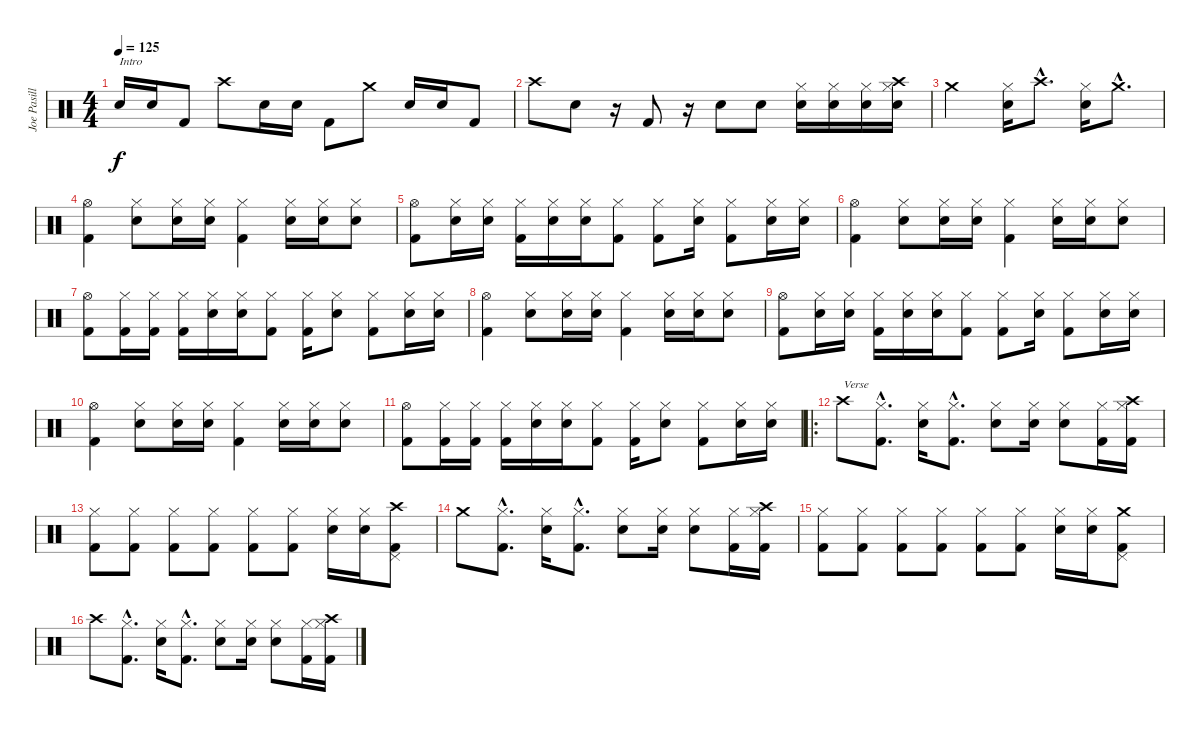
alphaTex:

\track ("Joe Pasillas" "Joe Pasill") {instrument percussion}
\staff {score}
\articulation defaults
\ts (4 4)
\tempo 125
\clef neutral
\ks c "Snare (hit) 2".16{txt "Intro" dy f} "Snare (hit) 2".16 "Kick (hit) 2".8 "Crash high (hit)".8 "Snare (hit) 2".16 "Snare (hit) 2".16 "Kick (hit) 2".8 "Crash medium (hit)".8 "Snare (hit) 2".16 "Snare (hit) 2".16 "Kick (hit) 2".8
|
"Crash high (hit)".8 "Snare (hit) 2".8 r.16 "Kick (hit) 2".8 r.16 "Snare (hit) 2".8 "Snare (hit) 2".8 ("Hi-Hat (closed)" "Snare (hit) 2").16 ("Hi-Hat (closed)" "Snare (hit) 2").16 ("Hi-Hat (closed)" "Snare (hit) 2").16 ("Crash high (hit)" "Hi-Hat (closed)" "Snare (hit) 2").16 |
"Crash medium (hit)".2 ("Hi-Hat (closed)" "Snare (hit) 2").16 "Crash high (hit)"{hac}.8{d} ("Hi-Hat (closed)" "Snare (hit) 2").16 "Crash medium (hit)"{hac}.8{d} |
("Hi-Hat (open)" "Kick (hit) 2").4 ("Hi-Hat (closed)" "Snare (hit) 2").8 ("Hi-Hat (closed)" "Snare (hit) 2").16 ("Hi-Hat (closed)" "Snare (hit) 2").16 ("Hi-Hat (closed)" "Kick (hit) 2").4 ("Hi-Hat (closed)" "Snare (hit) 2").16 ("Hi-Hat (closed)" "Snare (hit) 2").16 ("Hi-Hat (closed)" "Snare (hit) 2").8 |
("Hi-Hat (open)" "Kick (hit) 2").8 ("Hi-Hat (closed)" "Snare (hit) 2").16 ("Hi-Hat (closed)" "Snare (hit) 2").16 ("Hi-Hat (closed)" "Kick (hit) 2").16 ("Hi-Hat (closed)" "Snare (hit) 2").16 ("Hi-Hat (closed)" "Snare (hit) 2").16 ("Hi-Hat (closed)" "Kick (hit) 2").8 ("Hi-Hat (closed)" "Kick (hit) 2").8 ("Hi-Hat (closed)" "Snare (hit) 2").16 ("Hi-Hat (closed)" "Kick (hit) 2").8 ("Hi-Hat (closed)" "Snare (hit) 2").16 ("Hi-Hat (closed)" "Snare (hit) 2").16 |
("Hi-Hat (open)" "Kick (hit) 2").4 ("Hi-Hat (closed)" "Snare (hit) 2").8 ("Hi-Hat (closed)" "Snare (hit) 2").16 ("Hi-Hat (closed)" "Snare (hit) 2").16 ("Hi-Hat (closed)" "Kick (hit) 2").4 ("Hi-Hat (closed)" "Snare (hit) 2").16 ("Hi-Hat (closed)" "Snare (hit) 2").16 ("Hi-Hat (closed)" "Snare (hit) 2").8 |
("Hi-Hat (open)" "Kick (hit) 2").8 ("Hi-Hat (closed)" "Kick (hit) 2").16 ("Hi-Hat (closed)" "Kick (hit) 2").16 ("Hi-Hat (closed)" "Kick (hit) 2").16 ("Hi-Hat (closed)" "Snare (hit) 2").16 ("Hi-Hat (closed)" "Snare (hit) 2").16 ("Hi-Hat (closed)" "Kick (hit) 2").8 ("Hi-Hat (closed)" "Kick (hit) 2").16 ("Hi-Hat (closed)" "Snare (hit) 2").8 ("Hi-Hat (closed)" "Kick (hit) 2").8 ("Hi-Hat (closed)" "Snare (hit) 2").16 ("Hi-Hat (closed)" "Snare (hit) 2").16 |
("Hi-Hat (open)" "Kick (hit) 2").4 ("Hi-Hat (closed)" "Snare (hit) 2").8 ("Hi-Hat (closed)" "Snare (hit) 2").16 ("Hi-Hat (closed)" "Snare (hit) 2").16 ("Hi-Hat (closed)" "Kick (hit) 2").4 ("Hi-Hat (closed)" "Snare (hit) 2").16 ("Hi-Hat (closed)" "Snare (hit) 2").16 ("Hi-Hat (closed)" "Snare (hit) 2").8 |
("Hi-Hat (open)" "Kick (hit) 2").8 ("Hi-Hat (closed)" "Snare (hit) 2").16 ("Hi-Hat (closed)" "Snare (hit) 2").16 ("Hi-Hat (closed)" "Kick (hit) 2").16 ("Hi-Hat (closed)" "Snare (hit) 2").16 ("Hi-Hat (closed)" "Snare (hit) 2").16 ("Hi-Hat (closed)" "Kick (hit) 2").8 ("Hi-Hat (closed)" "Kick (hit) 2").8 ("Hi-Hat (closed)" "Snare (hit) 2").16 ("Hi-Hat (closed)" "Kick (hit) 2").8 ("Hi-Hat (closed)" "Snare (hit) 2").16 ("Hi-Hat (closed)" "Snare (hit) 2").16 |
("Hi-Hat (open)" "Kick (hit) 2").4 ("Hi-Hat (closed)" "Snare (hit) 2").8 ("Hi-Hat (closed)" "Snare (hit) 2").16 ("Hi-Hat (closed)" "Snare (hit) 2").16 ("Hi-Hat (closed)" "Kick (hit) 2").4 ("Hi-Hat (closed)" "Snare (hit) 2").16 ("Hi-Hat (closed)" "Snare (hit) 2").16 ("Hi-Hat (closed)" "Snare (hit) 2").8 |
("Hi-Hat (open)" "Kick (hit) 2").8 ("Hi-Hat (closed)" "Kick (hit) 2").16 ("Hi-Hat (closed)" "Kick (hit) 2").16 ("Hi-Hat (closed)" "Kick (hit) 2").16 ("Hi-Hat (closed)" "Snare (hit) 2").16 ("Hi-Hat (closed)" "Snare (hit) 2").16 ("Hi-Hat (closed)" "Kick (hit) 2").8 ("Hi-Hat (closed)" "Kick (hit) 2").16 ("Hi-Hat (closed)" "Snare (hit) 2").8 ("Hi-Hat (closed)" "Kick (hit) 2").8 ("Hi-Hat (closed)" "Snare (hit) 2").16 ("Hi-Hat (closed)" "Snare (hit) 2").16 |
\ro "Crash high (hit)".8{txt "Verse"}
("Hi-Hat (closed)"{hac} "Kick (hit) 2"{hac}).8{d} ("Hi-Hat (closed)" "Snare (hit) 2").16 ("Hi-Hat (closed)"{hac} "Kick (hit) 2"{hac}).8{d} ("Hi-Hat (closed)" "Snare (hit) 2").8 ("Hi-Hat (closed)" "Snare (hit) 2").16 ("Hi-Hat (closed)" "Snare (hit) 2").8 ("Hi-Hat (closed)" "Kick (hit) 2").16 ("Crash high (hit)" "Hi-Hat (closed)" "Kick (hit) 2").16 |
("Hi-Hat (closed)" "Kick (hit) 2").8 ("Hi-Hat (closed)" "Kick (hit) 2").8 ("Hi-Hat (closed)" "Kick (hit) 2").8 ("Hi-Hat (closed)" "Kick (hit) 2").8 ("Hi-Hat (closed)" "Kick (hit) 2").8 ("Hi-Hat (closed)" "Kick (hit) 2").8 ("Hi-Hat (closed)" "Snare (hit) 2").16 ("Hi-Hat (closed)" "Snare (hit) 2").16 ("Crash high (hit)" "Pedal Hi-Hat (hit)" "Kick (hit) 2").8 |
"Crash medium (hit)".8 ("Hi-Hat (closed)"{hac} "Kick (hit) 2"{hac}).8{d} ("Hi-Hat (closed)" "Snare (hit) 2").16 ("Hi-Hat (closed)"{hac} "Kick (hit) 2"{hac}).8{d} ("Hi-Hat (closed)" "Snare (hit) 2").8 ("Hi-Hat (closed)" "Snare (hit) 2").16 ("Hi-Hat (closed)" "Snare (hit) 2").8 ("Hi-Hat (closed)" "Kick (hit) 2").16 ("Crash high (hit)" "Hi-Hat (closed)" "Kick (hit) 2").16 |
("Hi-Hat (closed)" "Kick (hit) 2").8 ("Hi-Hat (closed)" "Kick (hit) 2").8 ("Hi-Hat (closed)" "Kick (hit) 2").8 ("Hi-Hat (closed)" "Kick (hit) 2").8 ("Hi-Hat (closed)" "Kick (hit) 2").8 ("Hi-Hat (closed)" "Kick (hit) 2").8 ("Hi-Hat (closed)" "Snare (hit) 2").16 ("Hi-Hat (closed)" "Snare (hit) 2").16 ("Crash medium (hit)" "Pedal Hi-Hat (hit)" "Kick (hit) 2").8 |
"Crash high (hit)".8 ("Hi-Hat (closed)"{hac} "Kick (hit) 2"{hac}).8{d} ("Hi-Hat (closed)" "Snare (hit) 2").16 ("Hi-Hat (closed)"{hac} "Kick (hit) 2"{hac}).8{d} ("Hi-Hat (closed)" "Snare (hit) 2").8 ("Hi-Hat (closed)" "Snare (hit) 2").16 ("Hi-Hat (closed)" "Snare (hit) 2").8 ("Hi-Hat (closed)" "Kick (hit) 2").16 ("Crash high (hit)" "Hi-Hat (closed)" "Kick (hit) 2").16
